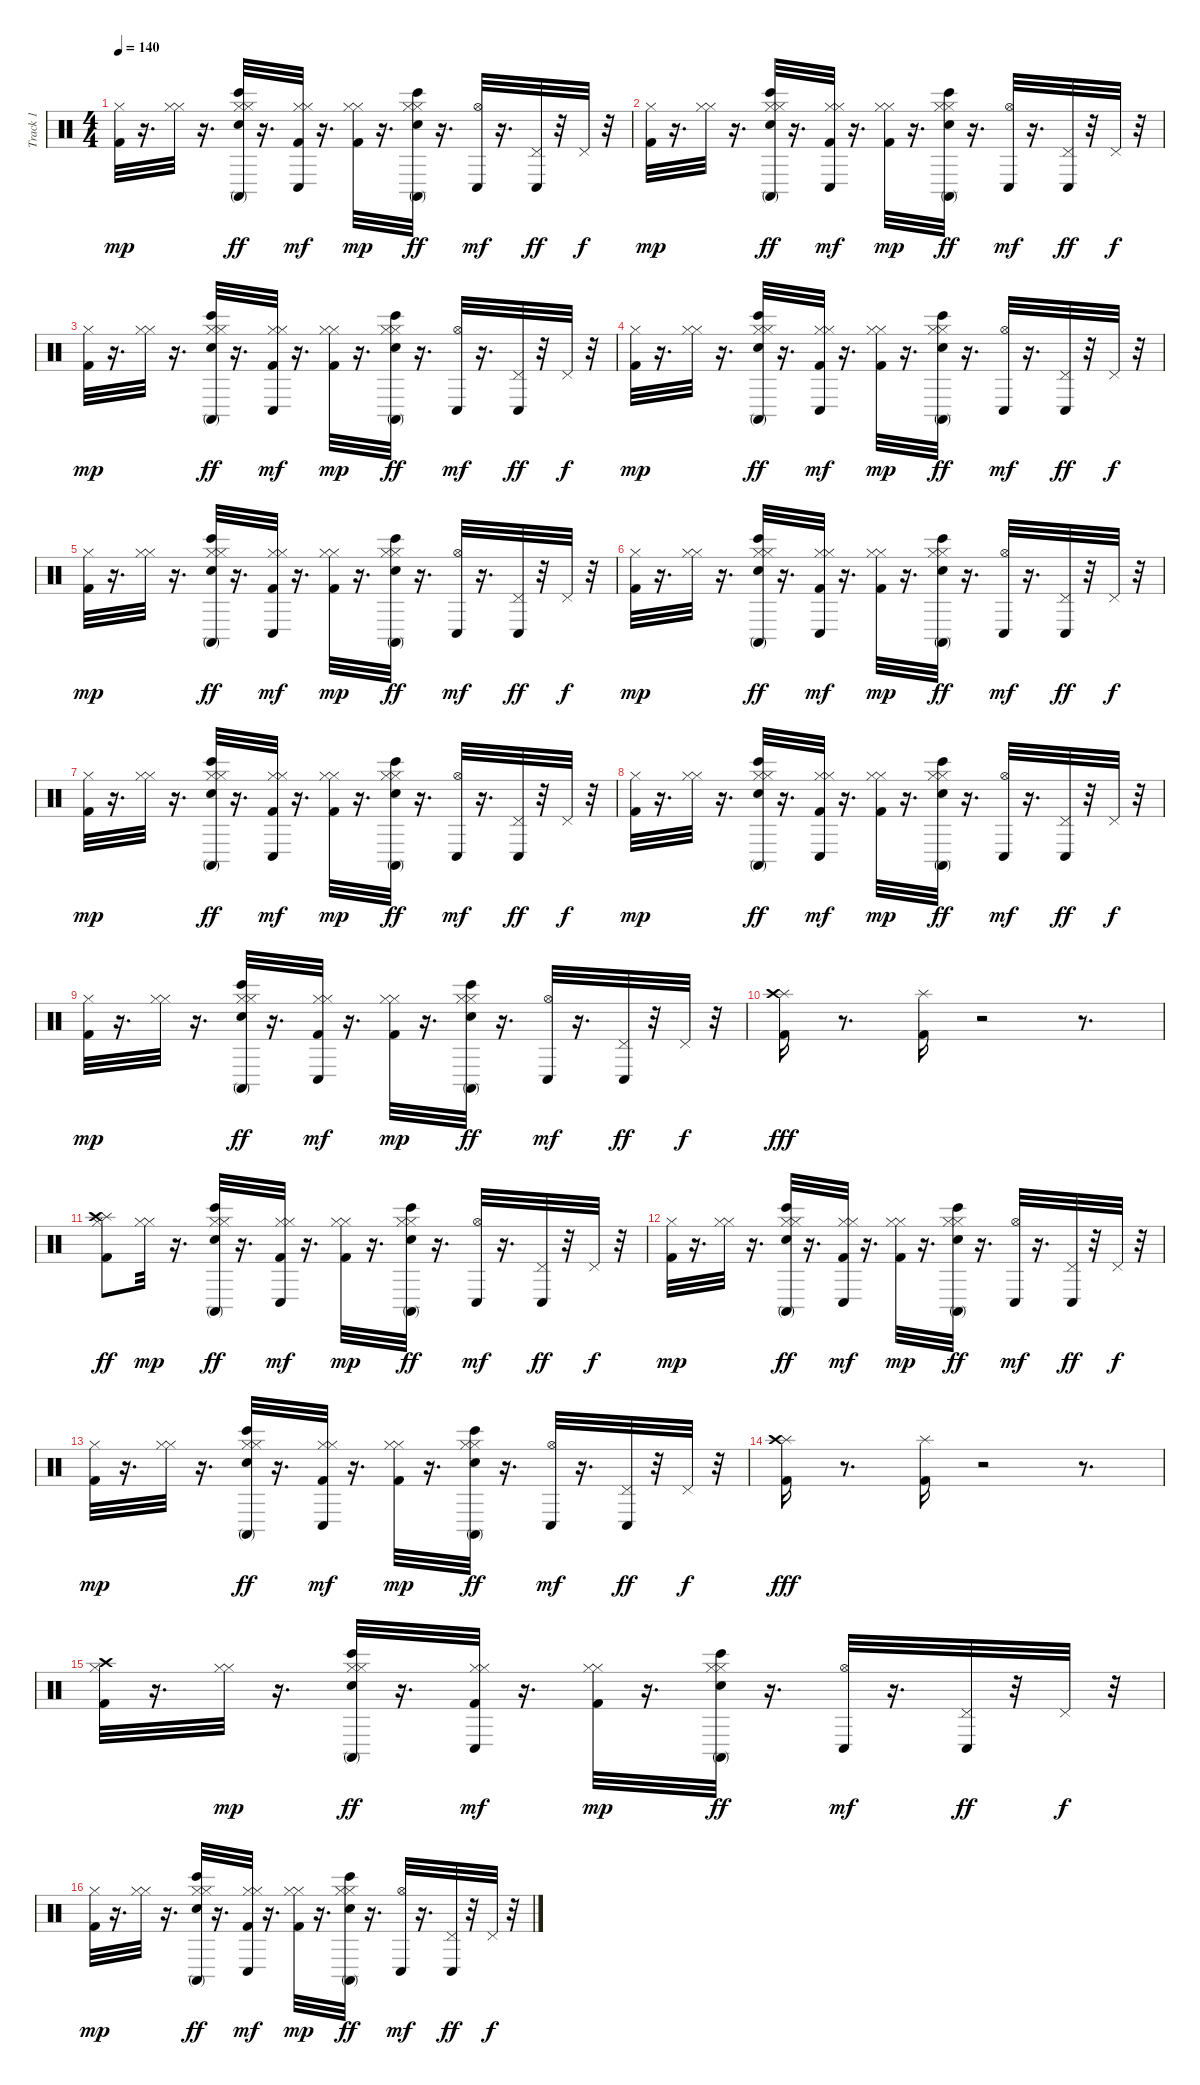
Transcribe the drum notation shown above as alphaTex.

\track ("Track 1" "Track 1") {instrument percussion}
\staff {score}
\articulation defaults
\ts (4 4)
\tempo 140
\clef neutral
\ks c
("Kick (hit) 2" "Hi-Hat (closed)").32{dy mp} r.16{d} ("Hi-Hat (closed)" "Hi-Hat (closed)").32 r.16{d} ("Electric Snare (hit)" "Hi-Hat (closed)" "Hi-Hat (closed)" "Conga high (mute)" "Bongo High (hit)").32{dy ff} r.16{d} ("Kick (hit) 2" "Hi-Hat (closed)" "Hi-Hat (closed)" "Conga low (hit)").32{dy mf} r.16{d} ("Kick (hit) 2" "Hi-Hat (closed)" "Hi-Hat (closed)").32{dy mp} r.16{d} ("Electric Snare (hit)" "Hi-Hat (closed)" "Hi-Hat (closed)" "Conga high (mute)" "Bongo High (hit)").32{dy ff} r.16{d} ("Hi-Hat (open)" "Conga low (hit)").32{dy mf} r.16{d} ("Pedal Hi-Hat (hit)" "Conga low (hit)").32{dy ff} r.32 "Pedal Hi-Hat (hit)".32{dy f} r.32 |
("Kick (hit) 2" "Hi-Hat (closed)").32{dy mp} r.16{d} ("Hi-Hat (closed)" "Hi-Hat (closed)").32 r.16{d} ("Electric Snare (hit)" "Hi-Hat (closed)" "Hi-Hat (closed)" "Conga high (mute)" "Bongo High (hit)").32{dy ff} r.16{d} ("Kick (hit) 2" "Hi-Hat (closed)" "Hi-Hat (closed)" "Conga low (hit)").32{dy mf} r.16{d} ("Kick (hit) 2" "Hi-Hat (closed)" "Hi-Hat (closed)").32{dy mp} r.16{d} ("Electric Snare (hit)" "Hi-Hat (closed)" "Hi-Hat (closed)" "Conga high (mute)" "Bongo High (hit)").32{dy ff} r.16{d} ("Hi-Hat (open)" "Conga low (hit)").32{dy mf} r.16{d} ("Pedal Hi-Hat (hit)" "Conga low (hit)").32{dy ff} r.32 "Pedal Hi-Hat (hit)".32{dy f} r.32 |
("Kick (hit) 2" "Hi-Hat (closed)").32{dy mp} r.16{d} ("Hi-Hat (closed)" "Hi-Hat (closed)").32 r.16{d} ("Electric Snare (hit)" "Hi-Hat (closed)" "Hi-Hat (closed)" "Conga high (mute)" "Bongo High (hit)").32{dy ff} r.16{d} ("Kick (hit) 2" "Hi-Hat (closed)" "Hi-Hat (closed)" "Conga low (hit)").32{dy mf} r.16{d} ("Kick (hit) 2" "Hi-Hat (closed)" "Hi-Hat (closed)").32{dy mp} r.16{d} ("Electric Snare (hit)" "Hi-Hat (closed)" "Hi-Hat (closed)" "Conga high (mute)" "Bongo High (hit)").32{dy ff} r.16{d} ("Hi-Hat (open)" "Conga low (hit)").32{dy mf} r.16{d} ("Pedal Hi-Hat (hit)" "Conga low (hit)").32{dy ff} r.32 "Pedal Hi-Hat (hit)".32{dy f} r.32 |
("Kick (hit) 2" "Hi-Hat (closed)").32{dy mp} r.16{d} ("Hi-Hat (closed)" "Hi-Hat (closed)").32 r.16{d} ("Electric Snare (hit)" "Hi-Hat (closed)" "Hi-Hat (closed)" "Conga high (mute)" "Bongo High (hit)").32{dy ff} r.16{d} ("Kick (hit) 2" "Hi-Hat (closed)" "Hi-Hat (closed)" "Conga low (hit)").32{dy mf} r.16{d} ("Kick (hit) 2" "Hi-Hat (closed)" "Hi-Hat (closed)").32{dy mp} r.16{d} ("Electric Snare (hit)" "Hi-Hat (closed)" "Hi-Hat (closed)" "Conga high (mute)" "Bongo High (hit)").32{dy ff} r.16{d} ("Hi-Hat (open)" "Conga low (hit)").32{dy mf} r.16{d} ("Pedal Hi-Hat (hit)" "Conga low (hit)").32{dy ff} r.32 "Pedal Hi-Hat (hit)".32{dy f} r.32 |
("Kick (hit) 2" "Hi-Hat (closed)").32{dy mp} r.16{d} ("Hi-Hat (closed)" "Hi-Hat (closed)").32 r.16{d} ("Electric Snare (hit)" "Hi-Hat (closed)" "Hi-Hat (closed)" "Conga high (mute)" "Bongo High (hit)").32{dy ff} r.16{d} ("Kick (hit) 2" "Hi-Hat (closed)" "Hi-Hat (closed)" "Conga low (hit)").32{dy mf} r.16{d} ("Kick (hit) 2" "Hi-Hat (closed)" "Hi-Hat (closed)").32{dy mp} r.16{d} ("Electric Snare (hit)" "Hi-Hat (closed)" "Hi-Hat (closed)" "Conga high (mute)" "Bongo High (hit)").32{dy ff} r.16{d} ("Hi-Hat (open)" "Conga low (hit)").32{dy mf} r.16{d} ("Pedal Hi-Hat (hit)" "Conga low (hit)").32{dy ff} r.32 "Pedal Hi-Hat (hit)".32{dy f} r.32 |
("Kick (hit) 2" "Hi-Hat (closed)").32{dy mp} r.16{d} ("Hi-Hat (closed)" "Hi-Hat (closed)").32 r.16{d} ("Electric Snare (hit)" "Hi-Hat (closed)" "Hi-Hat (closed)" "Conga high (mute)" "Bongo High (hit)").32{dy ff} r.16{d} ("Kick (hit) 2" "Hi-Hat (closed)" "Hi-Hat (closed)" "Conga low (hit)").32{dy mf} r.16{d} ("Kick (hit) 2" "Hi-Hat (closed)" "Hi-Hat (closed)").32{dy mp} r.16{d} ("Electric Snare (hit)" "Hi-Hat (closed)" "Hi-Hat (closed)" "Conga high (mute)" "Bongo High (hit)").32{dy ff} r.16{d} ("Hi-Hat (open)" "Conga low (hit)").32{dy mf} r.16{d} ("Pedal Hi-Hat (hit)" "Conga low (hit)").32{dy ff} r.32 "Pedal Hi-Hat (hit)".32{dy f} r.32 |
("Kick (hit) 2" "Hi-Hat (closed)").32{dy mp} r.16{d} ("Hi-Hat (closed)" "Hi-Hat (closed)").32 r.16{d} ("Electric Snare (hit)" "Hi-Hat (closed)" "Hi-Hat (closed)" "Conga high (mute)" "Bongo High (hit)").32{dy ff} r.16{d} ("Kick (hit) 2" "Hi-Hat (closed)" "Hi-Hat (closed)" "Conga low (hit)").32{dy mf} r.16{d} ("Kick (hit) 2" "Hi-Hat (closed)" "Hi-Hat (closed)").32{dy mp} r.16{d} ("Electric Snare (hit)" "Hi-Hat (closed)" "Hi-Hat (closed)" "Conga high (mute)" "Bongo High (hit)").32{dy ff} r.16{d} ("Hi-Hat (open)" "Conga low (hit)").32{dy mf} r.16{d} ("Pedal Hi-Hat (hit)" "Conga low (hit)").32{dy ff} r.32 "Pedal Hi-Hat (hit)".32{dy f} r.32 |
("Kick (hit) 2" "Hi-Hat (closed)").32{dy mp} r.16{d} ("Hi-Hat (closed)" "Hi-Hat (closed)").32 r.16{d} ("Electric Snare (hit)" "Hi-Hat (closed)" "Hi-Hat (closed)" "Conga high (mute)" "Bongo High (hit)").32{dy ff} r.16{d} ("Kick (hit) 2" "Hi-Hat (closed)" "Hi-Hat (closed)" "Conga low (hit)").32{dy mf} r.16{d} ("Kick (hit) 2" "Hi-Hat (closed)" "Hi-Hat (closed)").32{dy mp} r.16{d} ("Electric Snare (hit)" "Hi-Hat (closed)" "Hi-Hat (closed)" "Conga high (mute)" "Bongo High (hit)").32{dy ff} r.16{d} ("Hi-Hat (open)" "Conga low (hit)").32{dy mf} r.16{d} ("Pedal Hi-Hat (hit)" "Conga low (hit)").32{dy ff} r.32 "Pedal Hi-Hat (hit)".32{dy f} r.32 |
("Kick (hit) 2" "Hi-Hat (closed)").32{dy mp} r.16{d} ("Hi-Hat (closed)" "Hi-Hat (closed)").32 r.16{d} ("Electric Snare (hit)" "Hi-Hat (closed)" "Hi-Hat (closed)" "Conga high (mute)" "Bongo High (hit)").32{dy ff} r.16{d} ("Kick (hit) 2" "Hi-Hat (closed)" "Hi-Hat (closed)" "Conga low (hit)").32{dy mf} r.16{d} ("Kick (hit) 2" "Hi-Hat (closed)" "Hi-Hat (closed)").32{dy mp} r.16{d} ("Electric Snare (hit)" "Hi-Hat (closed)" "Hi-Hat (closed)" "Conga high (mute)" "Bongo High (hit)").32{dy ff} r.16{d} ("Hi-Hat (open)" "Conga low (hit)").32{dy mf} r.16{d} ("Pedal Hi-Hat (hit)" "Conga low (hit)").32{dy ff} r.32 "Pedal Hi-Hat (hit)".32{dy f} r.32 |
("Splash (hit)" "Kick (hit) 2" "Crash high (hit)").16{dy fff} r.8{d} ("Splash (hit)" "Kick (hit) 2").16 r.2 r.8{d} |
("Kick (hit) 2" "Hi-Hat (closed)" "Splash (hit)" "Crash high (hit)").8{dy ff} ("Hi-Hat (closed)" "Hi-Hat (closed)").32{dy mp} r.16{d} ("Electric Snare (hit)" "Hi-Hat (closed)" "Hi-Hat (closed)" "Conga high (mute)" "Bongo High (hit)").32{dy ff} r.16{d} ("Kick (hit) 2" "Hi-Hat (closed)" "Hi-Hat (closed)" "Conga low (hit)").32{dy mf} r.16{d} ("Kick (hit) 2" "Hi-Hat (closed)" "Hi-Hat (closed)").32{dy mp} r.16{d} ("Electric Snare (hit)" "Hi-Hat (closed)" "Hi-Hat (closed)" "Conga high (mute)" "Bongo High (hit)").32{dy ff} r.16{d} ("Hi-Hat (open)" "Conga low (hit)").32{dy mf} r.16{d} ("Pedal Hi-Hat (hit)" "Conga low (hit)").32{dy ff} r.32 "Pedal Hi-Hat (hit)".32{dy f} r.32 |
("Kick (hit) 2" "Hi-Hat (closed)").32{dy mp} r.16{d} ("Hi-Hat (closed)" "Hi-Hat (closed)").32 r.16{d} ("Electric Snare (hit)" "Hi-Hat (closed)" "Hi-Hat (closed)" "Conga high (mute)" "Bongo High (hit)").32{dy ff} r.16{d} ("Kick (hit) 2" "Hi-Hat (closed)" "Hi-Hat (closed)" "Conga low (hit)").32{dy mf} r.16{d} ("Kick (hit) 2" "Hi-Hat (closed)" "Hi-Hat (closed)").32{dy mp} r.16{d} ("Electric Snare (hit)" "Hi-Hat (closed)" "Hi-Hat (closed)" "Conga high (mute)" "Bongo High (hit)").32{dy ff} r.16{d} ("Hi-Hat (open)" "Conga low (hit)").32{dy mf} r.16{d} ("Pedal Hi-Hat (hit)" "Conga low (hit)").32{dy ff} r.32 "Pedal Hi-Hat (hit)".32{dy f} r.32 |
("Kick (hit) 2" "Hi-Hat (closed)").32{dy mp} r.16{d} ("Hi-Hat (closed)" "Hi-Hat (closed)").32 r.16{d} ("Electric Snare (hit)" "Hi-Hat (closed)" "Hi-Hat (closed)" "Conga high (mute)" "Bongo High (hit)").32{dy ff} r.16{d} ("Kick (hit) 2" "Hi-Hat (closed)" "Hi-Hat (closed)" "Conga low (hit)").32{dy mf} r.16{d} ("Kick (hit) 2" "Hi-Hat (closed)" "Hi-Hat (closed)").32{dy mp} r.16{d} ("Electric Snare (hit)" "Hi-Hat (closed)" "Hi-Hat (closed)" "Conga high (mute)" "Bongo High (hit)").32{dy ff} r.16{d} ("Hi-Hat (open)" "Conga low (hit)").32{dy mf} r.16{d} ("Pedal Hi-Hat (hit)" "Conga low (hit)").32{dy ff} r.32 "Pedal Hi-Hat (hit)".32{dy f} r.32 |
("Splash (hit)" "Kick (hit) 2" "Crash high (hit)").16{dy fff} r.8{d} ("Splash (hit)" "Kick (hit) 2").16 r.2 r.8{d} |
("Kick (hit) 2" "Hi-Hat (closed)" "Crash high (hit)").32 r.16{d} ("Hi-Hat (closed)" "Hi-Hat (closed)").32{dy mp} r.16{d} ("Electric Snare (hit)" "Hi-Hat (closed)" "Hi-Hat (closed)" "Conga high (mute)" "Bongo High (hit)").32{dy ff} r.16{d} ("Kick (hit) 2" "Hi-Hat (closed)" "Hi-Hat (closed)" "Conga low (hit)").32{dy mf} r.16{d} ("Kick (hit) 2" "Hi-Hat (closed)" "Hi-Hat (closed)").32{dy mp} r.16{d} ("Electric Snare (hit)" "Hi-Hat (closed)" "Hi-Hat (closed)" "Conga high (mute)" "Bongo High (hit)").32{dy ff} r.16{d} ("Hi-Hat (open)" "Conga low (hit)").32{dy mf} r.16{d} ("Pedal Hi-Hat (hit)" "Conga low (hit)").32{dy ff} r.32 "Pedal Hi-Hat (hit)".32{dy f} r.32 |
("Kick (hit) 2" "Hi-Hat (closed)").32{dy mp} r.16{d} ("Hi-Hat (closed)" "Hi-Hat (closed)").32 r.16{d} ("Electric Snare (hit)" "Hi-Hat (closed)" "Hi-Hat (closed)" "Conga high (mute)" "Bongo High (hit)").32{dy ff} r.16{d} ("Kick (hit) 2" "Hi-Hat (closed)" "Hi-Hat (closed)" "Conga low (hit)").32{dy mf} r.16{d} ("Kick (hit) 2" "Hi-Hat (closed)" "Hi-Hat (closed)").32{dy mp} r.16{d} ("Electric Snare (hit)" "Hi-Hat (closed)" "Hi-Hat (closed)" "Conga high (mute)" "Bongo High (hit)").32{dy ff} r.16{d} ("Hi-Hat (open)" "Conga low (hit)").32{dy mf} r.16{d} ("Pedal Hi-Hat (hit)" "Conga low (hit)").32{dy ff} r.32 "Pedal Hi-Hat (hit)".32{dy f} r.32
